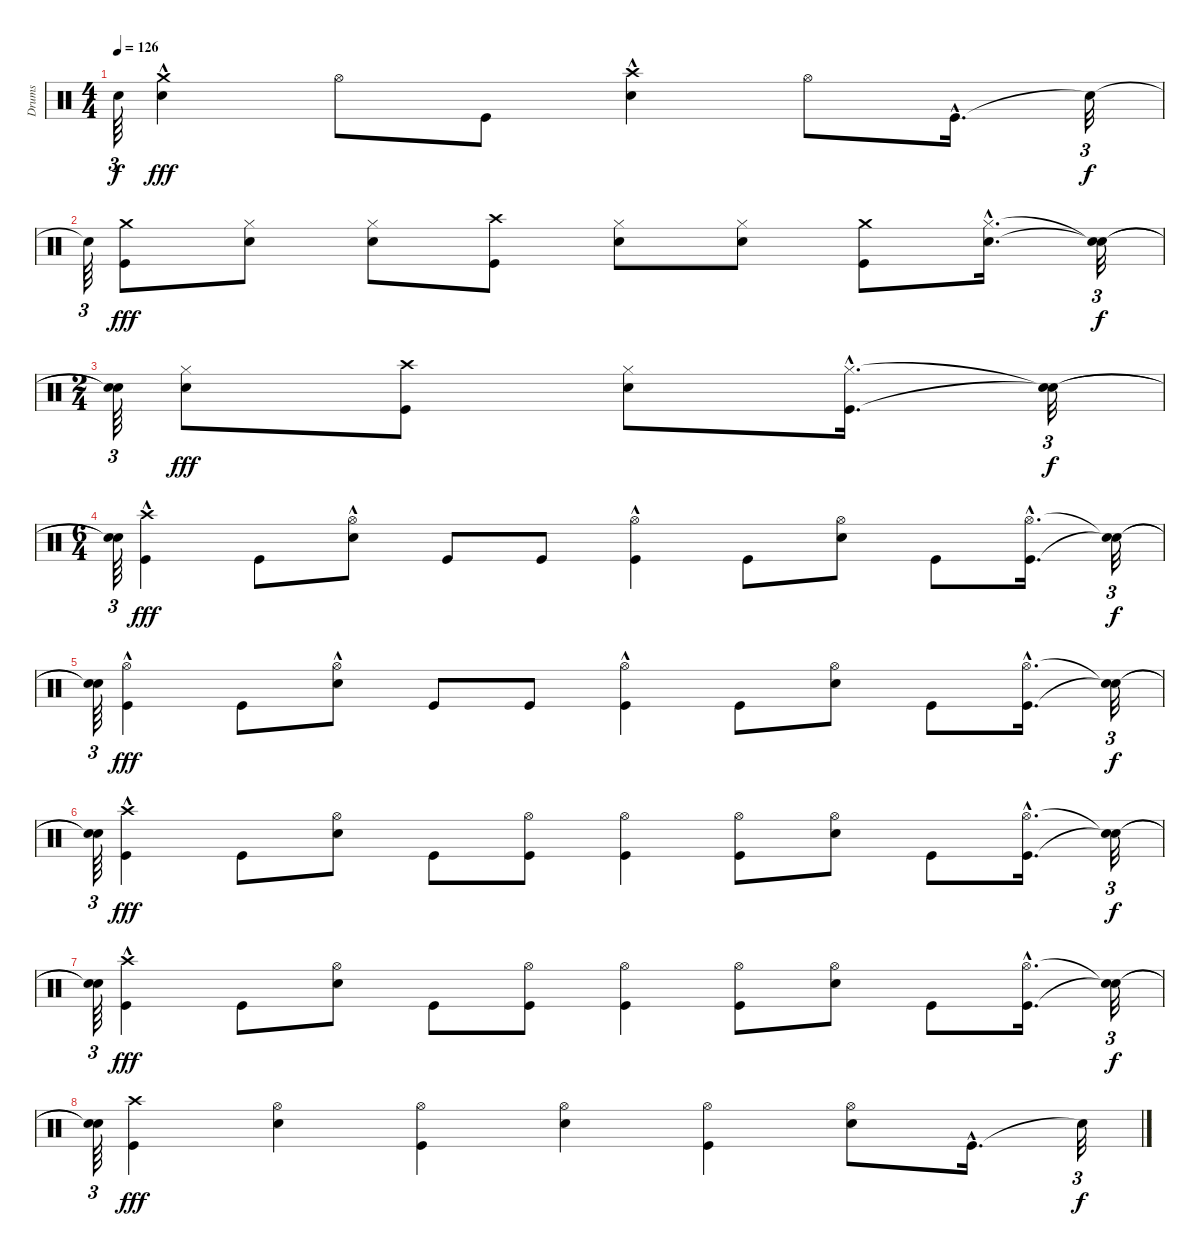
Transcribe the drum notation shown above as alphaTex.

\track ("Drums" "Drums") {instrument percussion}
\staff {score}
\articulation defaults
\ts (4 4)
\tempo 126
\clef neutral
\ks c "Snare (hit)"{t}.64{tu (3 2) dy f}
("Snare (hit) 2"{hac} "Crash medium (hit)").4{dy fff} "Hi-Hat (open)".8 "Kick (hit)".8 ("Snare (hit) 2"{hac} "Crash high (hit)").4 "Hi-Hat (open)".8 "Kick (hit)"{hac}.16{d} "Snare (hit)"{t}.32{tu (3 2) dy f} |
"Snare (hit)"{t}.64{tu (3 2)} ("Kick (hit)" "Crash medium (hit)").8{dy fff} ("Snare (hit) 2" "Hi-Hat (closed)").8 ("Snare (hit) 2" "Hi-Hat (closed)").8 ("Kick (hit)" "Crash high (hit)").8 ("Snare (hit) 2" "Hi-Hat (closed)").8 ("Snare (hit) 2" "Hi-Hat (closed)").8 ("Kick (hit)" "Crash medium (hit)").8 ("Snare (hit) 2"{hac} "Hi-Hat (closed)"{hac}).16{d} ("Snare (hit)"{t} "Snare (hit)"{t}).32{tu (3 2) dy f} |
\ts (2 4)
("Snare (hit)"{t} "Snare (hit)"{t}).64{tu (3 2)} ("Snare (hit) 2" "Hi-Hat (closed)").8{dy fff} ("Kick (hit)" "Crash high (hit)").8 ("Snare (hit) 2" "Hi-Hat (closed)").8 ("Kick (hit)"{hac} "Hi-Hat (closed)"{hac}).16{d} ("Snare (hit)"{t} "Snare (hit)"{t}).32{tu (3 2) dy f} |
\ts (6 4)
("Snare (hit)"{t} "Snare (hit)"{t}).64{tu (3 2)} ("Kick (hit)" "Crash high (hit)"{hac}).4{dy fff} "Kick (hit)".8 ("Snare (hit) 2" "Hi-Hat (open)"{hac}).8 "Kick (hit)".8 "Kick (hit)".8 ("Kick (hit)" "Hi-Hat (open)"{hac}).4 "Kick (hit)".8 ("Snare (hit) 2" "Hi-Hat (open)").8 "Kick (hit)".8 ("Kick (hit)"{hac} "Hi-Hat (open)"{hac}).16{d} ("Snare (hit)"{t} "Snare (hit)"{t}).32{tu (3 2) dy f} |
("Snare (hit)"{t} "Snare (hit)"{t}).64{tu (3 2)} ("Kick (hit)" "Hi-Hat (open)"{hac}).4{dy fff} "Kick (hit)".8 ("Snare (hit) 2" "Hi-Hat (open)"{hac}).8 "Kick (hit)".8 "Kick (hit)".8 ("Kick (hit)" "Hi-Hat (open)"{hac}).4 "Kick (hit)".8 ("Snare (hit) 2" "Hi-Hat (open)").8 "Kick (hit)".8 ("Kick (hit)"{hac} "Hi-Hat (open)"{hac}).16{d} ("Snare (hit)"{t} "Snare (hit)"{t}).32{tu (3 2) dy f} |
("Snare (hit)"{t} "Snare (hit)"{t}).64{tu (3 2)} ("Kick (hit)" "Crash high (hit)"{hac}).4{dy fff} "Kick (hit)".8 ("Snare (hit) 2" "Hi-Hat (open)").8 "Kick (hit)".8 ("Kick (hit)" "Hi-Hat (open)").8 ("Kick (hit)" "Hi-Hat (open)").4 ("Kick (hit)" "Hi-Hat (open)").8 ("Snare (hit) 2" "Hi-Hat (open)").8 "Kick (hit)".8 ("Kick (hit)"{hac} "Hi-Hat (open)"{hac}).16{d} ("Snare (hit)"{t} "Snare (hit)"{t}).32{tu (3 2) dy f} |
("Snare (hit)"{t} "Snare (hit)"{t}).64{tu (3 2)} ("Kick (hit)" "Crash high (hit)"{hac}).4{dy fff} "Kick (hit)".8 ("Snare (hit) 2" "Hi-Hat (open)").8 "Kick (hit)".8 ("Kick (hit)" "Hi-Hat (open)").8 ("Kick (hit)" "Hi-Hat (open)").4 ("Kick (hit)" "Hi-Hat (open)").8 ("Snare (hit) 2" "Hi-Hat (open)").8 "Kick (hit)".8 ("Kick (hit)"{hac} "Hi-Hat (open)"{hac}).16{d} ("Snare (hit)"{t} "Snare (hit)"{t}).32{tu (3 2) dy f} |
("Snare (hit)"{t} "Snare (hit)"{t}).64{tu (3 2)} ("Kick (hit)" "Crash high (hit)").4{dy fff} ("Snare (hit) 2" "Hi-Hat (open)").4 ("Kick (hit)" "Hi-Hat (open)").4 ("Snare (hit) 2" "Hi-Hat (open)").4 ("Kick (hit)" "Hi-Hat (open)").4 ("Snare (hit) 2" "Hi-Hat (open)").8 "Kick (hit)"{hac}.16{d} "Snare (hit)"{t}.32{tu (3 2) dy f}
